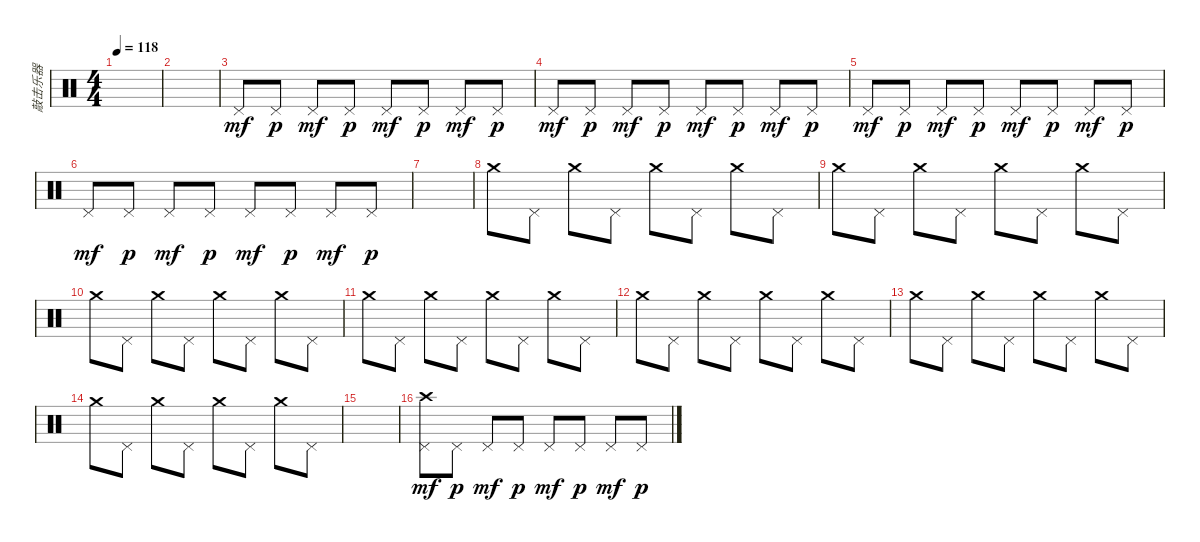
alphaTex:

\track ("敲击乐器" "敲击乐器") {instrument percussion}
\staff {score}
\articulation defaults
\ts (4 4)
\tempo 118
\clef neutral
\ks c
|
|
"Pedal Hi-Hat (hit)".8{dy mf} "Pedal Hi-Hat (hit)".8{dy p} "Pedal Hi-Hat (hit)".8{dy mf} "Pedal Hi-Hat (hit)".8{dy p} "Pedal Hi-Hat (hit)".8{dy mf} "Pedal Hi-Hat (hit)".8{dy p} "Pedal Hi-Hat (hit)".8{dy mf} "Pedal Hi-Hat (hit)".8{dy p} |
"Pedal Hi-Hat (hit)".8{dy mf} "Pedal Hi-Hat (hit)".8{dy p} "Pedal Hi-Hat (hit)".8{dy mf} "Pedal Hi-Hat (hit)".8{dy p} "Pedal Hi-Hat (hit)".8{dy mf} "Pedal Hi-Hat (hit)".8{dy p} "Pedal Hi-Hat (hit)".8{dy mf} "Pedal Hi-Hat (hit)".8{dy p} |
"Pedal Hi-Hat (hit)".8{dy mf} "Pedal Hi-Hat (hit)".8{dy p} "Pedal Hi-Hat (hit)".8{dy mf} "Pedal Hi-Hat (hit)".8{dy p} "Pedal Hi-Hat (hit)".8{dy mf} "Pedal Hi-Hat (hit)".8{dy p} "Pedal Hi-Hat (hit)".8{dy mf} "Pedal Hi-Hat (hit)".8{dy p} |
"Pedal Hi-Hat (hit)".8{dy mf} "Pedal Hi-Hat (hit)".8{dy p} "Pedal Hi-Hat (hit)".8{dy mf} "Pedal Hi-Hat (hit)".8{dy p} "Pedal Hi-Hat (hit)".8{dy mf} "Pedal Hi-Hat (hit)".8{dy p} "Pedal Hi-Hat (hit)".8{dy mf} "Pedal Hi-Hat (hit)".8{dy p} |
|
"Crash medium (hit)".8 "Pedal Hi-Hat (hit)".8 "Crash medium (hit)".8 "Pedal Hi-Hat (hit)".8 "Crash medium (hit)".8 "Pedal Hi-Hat (hit)".8 "Crash medium (hit)".8 "Pedal Hi-Hat (hit)".8 |
"Crash medium (hit)".8 "Pedal Hi-Hat (hit)".8 "Crash medium (hit)".8 "Pedal Hi-Hat (hit)".8 "Crash medium (hit)".8 "Pedal Hi-Hat (hit)".8 "Crash medium (hit)".8 "Pedal Hi-Hat (hit)".8 |
"Crash medium (hit)".8 "Pedal Hi-Hat (hit)".8 "Crash medium (hit)".8 "Pedal Hi-Hat (hit)".8 "Crash medium (hit)".8 "Pedal Hi-Hat (hit)".8 "Crash medium (hit)".8 "Pedal Hi-Hat (hit)".8 |
"Crash medium (hit)".8 "Pedal Hi-Hat (hit)".8 "Crash medium (hit)".8 "Pedal Hi-Hat (hit)".8 "Crash medium (hit)".8 "Pedal Hi-Hat (hit)".8 "Crash medium (hit)".8 "Pedal Hi-Hat (hit)".8 |
"Crash medium (hit)".8 "Pedal Hi-Hat (hit)".8 "Crash medium (hit)".8 "Pedal Hi-Hat (hit)".8 "Crash medium (hit)".8 "Pedal Hi-Hat (hit)".8 "Crash medium (hit)".8 "Pedal Hi-Hat (hit)".8 |
"Crash medium (hit)".8 "Pedal Hi-Hat (hit)".8 "Crash medium (hit)".8 "Pedal Hi-Hat (hit)".8 "Crash medium (hit)".8 "Pedal Hi-Hat (hit)".8 "Crash medium (hit)".8 "Pedal Hi-Hat (hit)".8 |
"Crash medium (hit)".8 "Pedal Hi-Hat (hit)".8 "Crash medium (hit)".8 "Pedal Hi-Hat (hit)".8 "Crash medium (hit)".8 "Pedal Hi-Hat (hit)".8 "Crash medium (hit)".8 "Pedal Hi-Hat (hit)".8 |
|
("Crash high (hit)" "Pedal Hi-Hat (hit)").8{dy mf} "Pedal Hi-Hat (hit)".8{dy p} "Pedal Hi-Hat (hit)".8{dy mf} "Pedal Hi-Hat (hit)".8{dy p} "Pedal Hi-Hat (hit)".8{dy mf} "Pedal Hi-Hat (hit)".8{dy p} "Pedal Hi-Hat (hit)".8{dy mf} "Pedal Hi-Hat (hit)".8{dy p}
